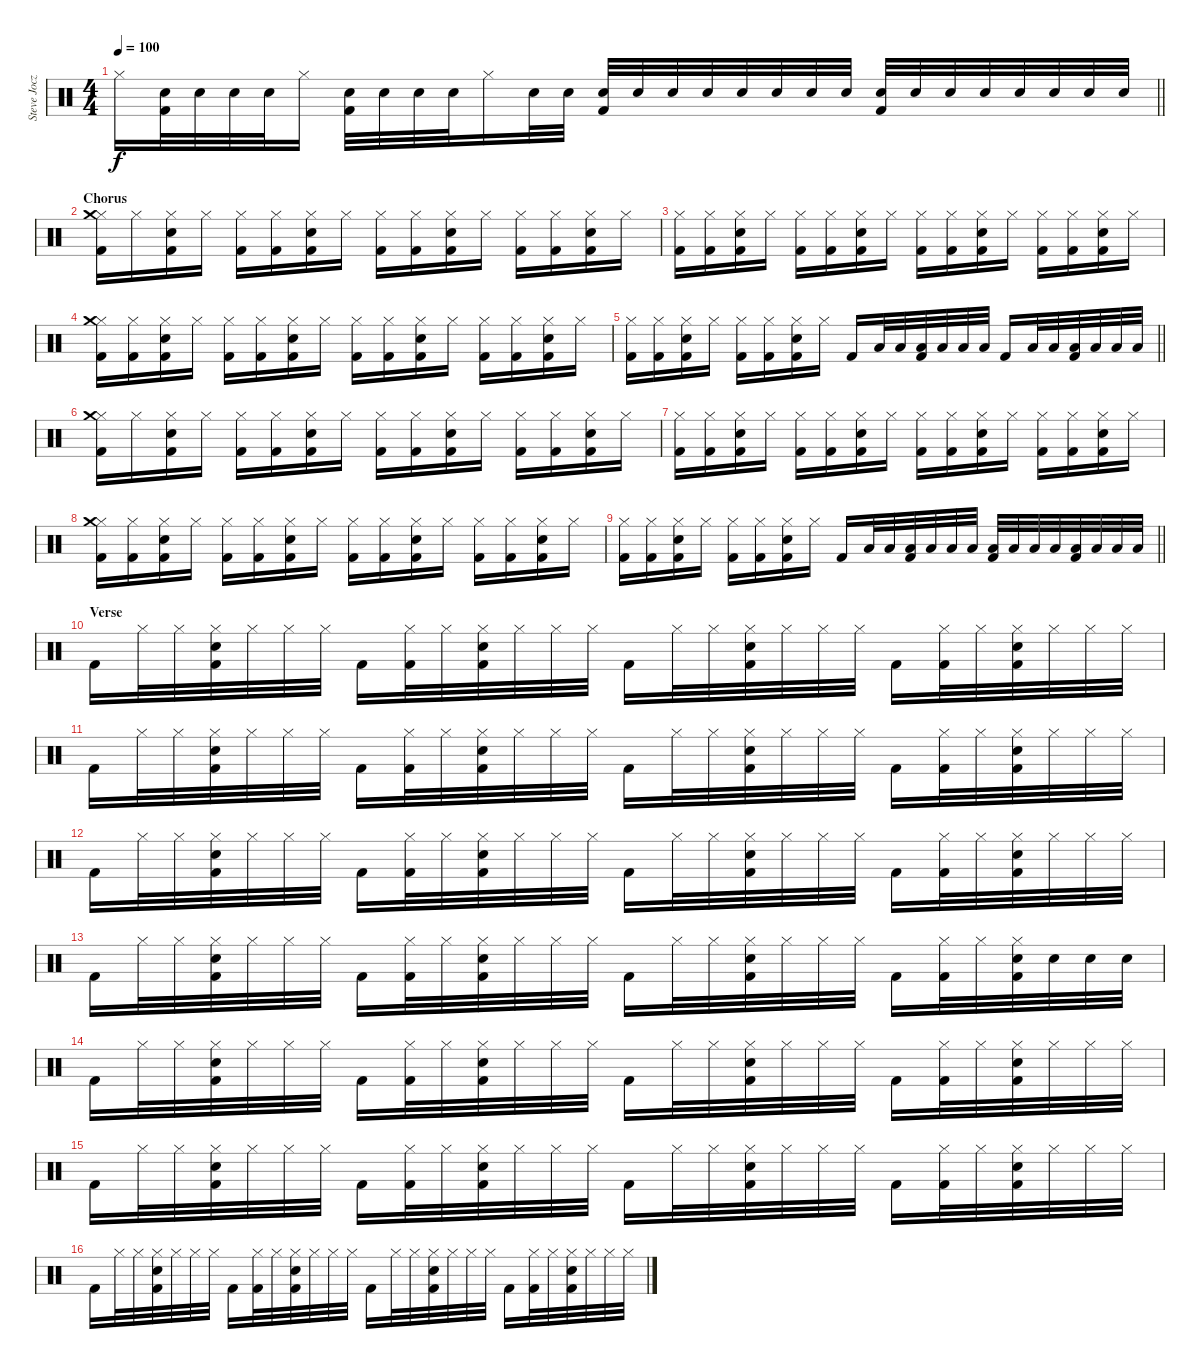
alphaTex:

\track ("Steve Jocz <Drums>" "Steve Jocz") {instrument percussion}
\staff {score}
\articulation defaults
\ts (4 4)
\tempo 100
\clef neutral
\barLineRight lightlight
\ks c "Hi-Hat (closed)".16{dy f}
("Snare (hit) 2" "Kick (hit) 2").32 "Snare (hit) 2".32 "Snare (hit) 2".32 "Snare (hit) 2".32 "Hi-Hat (closed)".16 ("Snare (hit) 2" "Kick (hit) 2").32 "Snare (hit) 2".32 "Snare (hit) 2".32 "Snare (hit) 2".32 "Hi-Hat (closed)".16 "Snare (hit) 2".32 "Snare (hit) 2".32 ("Snare (hit) 2" "Kick (hit) 2").32 "Snare (hit) 2".32 "Snare (hit) 2".32 "Snare (hit) 2".32 "Snare (hit) 2".32 "Snare (hit) 2".32 "Snare (hit) 2".32 "Snare (hit) 2".32 ("Snare (hit) 2" "Kick (hit) 2").32 "Snare (hit) 2".32 "Snare (hit) 2".32 "Snare (hit) 2".32 "Snare (hit) 2".32 "Snare (hit) 2".32 "Snare (hit) 2".32 "Snare (hit) 2".32 |
\section ("" "Chorus")
("Hi-Hat (closed)" "Crash medium (hit)" "Kick (hit) 2").16 "Hi-Hat (closed)".16 ("Hi-Hat (closed)" "Snare (hit) 2" "Kick (hit) 2").16 "Hi-Hat (closed)".16 ("Hi-Hat (closed)" "Kick (hit) 2").16 ("Hi-Hat (closed)" "Kick (hit) 2").16 ("Hi-Hat (closed)" "Snare (hit) 2" "Kick (hit) 2").16 "Hi-Hat (closed)".16 ("Hi-Hat (closed)" "Kick (hit) 2").16 ("Hi-Hat (closed)" "Kick (hit) 2").16 ("Hi-Hat (closed)" "Snare (hit) 2" "Kick (hit) 2").16 "Hi-Hat (closed)".16 ("Hi-Hat (closed)" "Kick (hit) 2").16 ("Hi-Hat (closed)" "Kick (hit) 2").16 ("Hi-Hat (closed)" "Snare (hit) 2" "Kick (hit) 2").16 "Hi-Hat (closed)".16 |
("Hi-Hat (closed)" "Kick (hit) 2").16 ("Hi-Hat (closed)" "Kick (hit) 2").16 ("Hi-Hat (closed)" "Snare (hit) 2" "Kick (hit) 2").16 "Hi-Hat (closed)".16 ("Hi-Hat (closed)" "Kick (hit) 2").16 ("Hi-Hat (closed)" "Kick (hit) 2").16 ("Hi-Hat (closed)" "Snare (hit) 2" "Kick (hit) 2").16 "Hi-Hat (closed)".16 ("Hi-Hat (closed)" "Kick (hit) 2").16 ("Hi-Hat (closed)" "Kick (hit) 2").16 ("Hi-Hat (closed)" "Snare (hit) 2" "Kick (hit) 2").16 "Hi-Hat (closed)".16 ("Hi-Hat (closed)" "Kick (hit) 2").16 ("Hi-Hat (closed)" "Kick (hit) 2").16 ("Hi-Hat (closed)" "Snare (hit) 2" "Kick (hit) 2").16 "Hi-Hat (closed)".16 |
("Hi-Hat (closed)" "Crash medium (hit)" "Kick (hit) 2").16 ("Hi-Hat (closed)" "Kick (hit) 2").16 ("Hi-Hat (closed)" "Snare (hit) 2" "Kick (hit) 2").16 "Hi-Hat (closed)".16 ("Hi-Hat (closed)" "Kick (hit) 2").16 ("Hi-Hat (closed)" "Kick (hit) 2").16 ("Hi-Hat (closed)" "Snare (hit) 2" "Kick (hit) 2").16 "Hi-Hat (closed)".16 ("Hi-Hat (closed)" "Kick (hit) 2").16 ("Hi-Hat (closed)" "Kick (hit) 2").16 ("Hi-Hat (closed)" "Snare (hit) 2" "Kick (hit) 2").16 "Hi-Hat (closed)".16 ("Hi-Hat (closed)" "Kick (hit) 2").16 ("Hi-Hat (closed)" "Kick (hit) 2").16 ("Hi-Hat (closed)" "Snare (hit) 2" "Kick (hit) 2").16 "Hi-Hat (closed)".16 |
\barLineRight lightlight
("Hi-Hat (closed)" "Kick (hit) 2").16 ("Hi-Hat (closed)" "Kick (hit) 2").16 ("Hi-Hat (closed)" "Snare (hit) 2" "Kick (hit) 2").16 "Hi-Hat (closed)".16 ("Hi-Hat (closed)" "Kick (hit) 2").16 ("Hi-Hat (closed)" "Kick (hit) 2").16 ("Hi-Hat (closed)" "Snare (hit) 2" "Kick (hit) 2").16 "Hi-Hat (closed)".16 "Kick (hit) 2".16 "Low Tom (hit)".32 "Low Tom (hit)".32 ("Low Tom (hit)" "Kick (hit) 2").32 "Low Tom (hit)".32 "Low Tom (hit)".32 "Low Tom (hit)".32 "Kick (hit) 2".16 "Low Tom (hit)".32 "Low Tom (hit)".32 ("Low Tom (hit)" "Kick (hit) 2").32 "Low Tom (hit)".32 "Low Tom (hit)".32 "Low Tom (hit)".32 |
("Hi-Hat (closed)" "Crash medium (hit)" "Kick (hit) 2").16 "Hi-Hat (closed)".16 ("Hi-Hat (closed)" "Snare (hit) 2" "Kick (hit) 2").16 "Hi-Hat (closed)".16 ("Hi-Hat (closed)" "Kick (hit) 2").16 ("Hi-Hat (closed)" "Kick (hit) 2").16 ("Hi-Hat (closed)" "Snare (hit) 2" "Kick (hit) 2").16 "Hi-Hat (closed)".16 ("Hi-Hat (closed)" "Kick (hit) 2").16 ("Hi-Hat (closed)" "Kick (hit) 2").16 ("Hi-Hat (closed)" "Snare (hit) 2" "Kick (hit) 2").16 "Hi-Hat (closed)".16 ("Hi-Hat (closed)" "Kick (hit) 2").16 ("Hi-Hat (closed)" "Kick (hit) 2").16 ("Hi-Hat (closed)" "Snare (hit) 2" "Kick (hit) 2").16 "Hi-Hat (closed)".16 |
("Hi-Hat (closed)" "Kick (hit) 2").16 ("Hi-Hat (closed)" "Kick (hit) 2").16 ("Hi-Hat (closed)" "Snare (hit) 2" "Kick (hit) 2").16 "Hi-Hat (closed)".16 ("Hi-Hat (closed)" "Kick (hit) 2").16 ("Hi-Hat (closed)" "Kick (hit) 2").16 ("Hi-Hat (closed)" "Snare (hit) 2" "Kick (hit) 2").16 "Hi-Hat (closed)".16 ("Hi-Hat (closed)" "Kick (hit) 2").16 ("Hi-Hat (closed)" "Kick (hit) 2").16 ("Hi-Hat (closed)" "Snare (hit) 2" "Kick (hit) 2").16 "Hi-Hat (closed)".16 ("Hi-Hat (closed)" "Kick (hit) 2").16 ("Hi-Hat (closed)" "Kick (hit) 2").16 ("Hi-Hat (closed)" "Snare (hit) 2" "Kick (hit) 2").16 "Hi-Hat (closed)".16 |
("Hi-Hat (closed)" "Crash medium (hit)" "Kick (hit) 2").16 ("Hi-Hat (closed)" "Kick (hit) 2").16 ("Hi-Hat (closed)" "Snare (hit) 2" "Kick (hit) 2").16 "Hi-Hat (closed)".16 ("Hi-Hat (closed)" "Kick (hit) 2").16 ("Hi-Hat (closed)" "Kick (hit) 2").16 ("Hi-Hat (closed)" "Snare (hit) 2" "Kick (hit) 2").16 "Hi-Hat (closed)".16 ("Hi-Hat (closed)" "Kick (hit) 2").16 ("Hi-Hat (closed)" "Kick (hit) 2").16 ("Hi-Hat (closed)" "Snare (hit) 2" "Kick (hit) 2").16 "Hi-Hat (closed)".16 ("Hi-Hat (closed)" "Kick (hit) 2").16 ("Hi-Hat (closed)" "Kick (hit) 2").16 ("Hi-Hat (closed)" "Snare (hit) 2" "Kick (hit) 2").16 "Hi-Hat (closed)".16 |
\barLineRight lightlight
("Hi-Hat (closed)" "Kick (hit) 2").16 ("Hi-Hat (closed)" "Kick (hit) 2").16 ("Hi-Hat (closed)" "Snare (hit) 2" "Kick (hit) 2").16 "Hi-Hat (closed)".16 ("Hi-Hat (closed)" "Kick (hit) 2").16 ("Hi-Hat (closed)" "Kick (hit) 2").16 ("Hi-Hat (closed)" "Snare (hit) 2" "Kick (hit) 2").16 "Hi-Hat (closed)".16 "Kick (hit) 2".16 "Low Tom (hit)".32 "Low Tom (hit)".32 ("Low Tom (hit)" "Kick (hit) 2").32 "Low Tom (hit)".32 "Low Tom (hit)".32 "Low Tom (hit)".32 ("Low Floor Tom (hit)" "Kick (hit) 2").32 "Low Floor Tom (hit)".32 "Low Floor Tom (hit)".32 "Low Floor Tom (hit)".32 ("Low Floor Tom (hit)" "Kick (hit) 2").32 "Low Floor Tom (hit)".32 "Low Floor Tom (hit)".32 "Low Floor Tom (hit)".32 |
\section ("" "Verse")
"Kick (hit) 2".16 "Hi-Hat (closed)".32 "Hi-Hat (closed)".32 ("Hi-Hat (closed)" "Snare (hit) 2" "Kick (hit) 2").32 "Hi-Hat (closed)".32 "Hi-Hat (closed)".32 "Hi-Hat (closed)".32 "Kick (hit) 2".16 ("Hi-Hat (closed)" "Kick (hit) 2").32 "Hi-Hat (closed)".32 ("Hi-Hat (closed)" "Snare (hit) 2" "Kick (hit) 2").32 "Hi-Hat (closed)".32 "Hi-Hat (closed)".32 "Hi-Hat (closed)".32 "Kick (hit) 2".16 "Hi-Hat (closed)".32 "Hi-Hat (closed)".32 ("Hi-Hat (closed)" "Snare (hit) 2" "Kick (hit) 2").32 "Hi-Hat (closed)".32 "Hi-Hat (closed)".32 "Hi-Hat (closed)".32 "Kick (hit) 2".16 ("Hi-Hat (closed)" "Kick (hit) 2").32 "Hi-Hat (closed)".32 ("Hi-Hat (closed)" "Snare (hit) 2" "Kick (hit) 2").32 "Hi-Hat (closed)".32 "Hi-Hat (closed)".32 "Hi-Hat (closed)".32 |
"Kick (hit) 2".16 "Hi-Hat (closed)".32 "Hi-Hat (closed)".32 ("Hi-Hat (closed)" "Snare (hit) 2" "Kick (hit) 2").32 "Hi-Hat (closed)".32 "Hi-Hat (closed)".32 "Hi-Hat (closed)".32 "Kick (hit) 2".16 ("Hi-Hat (closed)" "Kick (hit) 2").32 "Hi-Hat (closed)".32 ("Hi-Hat (closed)" "Snare (hit) 2" "Kick (hit) 2").32 "Hi-Hat (closed)".32 "Hi-Hat (closed)".32 "Hi-Hat (closed)".32 "Kick (hit) 2".16 "Hi-Hat (closed)".32 "Hi-Hat (closed)".32 ("Hi-Hat (closed)" "Snare (hit) 2" "Kick (hit) 2").32 "Hi-Hat (closed)".32 "Hi-Hat (closed)".32 "Hi-Hat (closed)".32 "Kick (hit) 2".16 ("Hi-Hat (closed)" "Kick (hit) 2").32 "Hi-Hat (closed)".32 ("Hi-Hat (closed)" "Snare (hit) 2" "Kick (hit) 2").32 "Hi-Hat (closed)".32 "Hi-Hat (closed)".32 "Hi-Hat (closed)".32 |
"Kick (hit) 2".16 "Hi-Hat (closed)".32 "Hi-Hat (closed)".32 ("Hi-Hat (closed)" "Snare (hit) 2" "Kick (hit) 2").32 "Hi-Hat (closed)".32 "Hi-Hat (closed)".32 "Hi-Hat (closed)".32 "Kick (hit) 2".16 ("Hi-Hat (closed)" "Kick (hit) 2").32 "Hi-Hat (closed)".32 ("Hi-Hat (closed)" "Snare (hit) 2" "Kick (hit) 2").32 "Hi-Hat (closed)".32 "Hi-Hat (closed)".32 "Hi-Hat (closed)".32 "Kick (hit) 2".16 "Hi-Hat (closed)".32 "Hi-Hat (closed)".32 ("Hi-Hat (closed)" "Snare (hit) 2" "Kick (hit) 2").32 "Hi-Hat (closed)".32 "Hi-Hat (closed)".32 "Hi-Hat (closed)".32 "Kick (hit) 2".16 ("Hi-Hat (closed)" "Kick (hit) 2").32 "Hi-Hat (closed)".32 ("Hi-Hat (closed)" "Snare (hit) 2" "Kick (hit) 2").32 "Hi-Hat (closed)".32 "Hi-Hat (closed)".32 "Hi-Hat (closed)".32 |
"Kick (hit) 2".16 "Hi-Hat (closed)".32 "Hi-Hat (closed)".32 ("Hi-Hat (closed)" "Snare (hit) 2" "Kick (hit) 2").32 "Hi-Hat (closed)".32 "Hi-Hat (closed)".32 "Hi-Hat (closed)".32 "Kick (hit) 2".16 ("Hi-Hat (closed)" "Kick (hit) 2").32 "Hi-Hat (closed)".32 ("Hi-Hat (closed)" "Snare (hit) 2" "Kick (hit) 2").32 "Hi-Hat (closed)".32 "Hi-Hat (closed)".32 "Hi-Hat (closed)".32 "Kick (hit) 2".16 "Hi-Hat (closed)".32 "Hi-Hat (closed)".32 ("Hi-Hat (closed)" "Snare (hit) 2" "Kick (hit) 2").32 "Hi-Hat (closed)".32 "Hi-Hat (closed)".32 "Hi-Hat (closed)".32 "Kick (hit) 2".16 ("Hi-Hat (closed)" "Kick (hit) 2").32 "Hi-Hat (closed)".32 ("Hi-Hat (closed)" "Snare (hit) 2" "Kick (hit) 2").32 "Snare (hit) 2".32 "Snare (hit) 2".32 "Snare (hit) 2".32 |
"Kick (hit) 2".16 "Hi-Hat (closed)".32 "Hi-Hat (closed)".32 ("Hi-Hat (closed)" "Snare (hit) 2" "Kick (hit) 2").32 "Hi-Hat (closed)".32 "Hi-Hat (closed)".32 "Hi-Hat (closed)".32 "Kick (hit) 2".16 ("Hi-Hat (closed)" "Kick (hit) 2").32 "Hi-Hat (closed)".32 ("Hi-Hat (closed)" "Snare (hit) 2" "Kick (hit) 2").32 "Hi-Hat (closed)".32 "Hi-Hat (closed)".32 "Hi-Hat (closed)".32 "Kick (hit) 2".16 "Hi-Hat (closed)".32 "Hi-Hat (closed)".32 ("Hi-Hat (closed)" "Snare (hit) 2" "Kick (hit) 2").32 "Hi-Hat (closed)".32 "Hi-Hat (closed)".32 "Hi-Hat (closed)".32 "Kick (hit) 2".16 ("Hi-Hat (closed)" "Kick (hit) 2").32 "Hi-Hat (closed)".32 ("Hi-Hat (closed)" "Snare (hit) 2" "Kick (hit) 2").32 "Hi-Hat (closed)".32 "Hi-Hat (closed)".32 "Hi-Hat (closed)".32 |
"Kick (hit) 2".16 "Hi-Hat (closed)".32 "Hi-Hat (closed)".32 ("Hi-Hat (closed)" "Snare (hit) 2" "Kick (hit) 2").32 "Hi-Hat (closed)".32 "Hi-Hat (closed)".32 "Hi-Hat (closed)".32 "Kick (hit) 2".16 ("Hi-Hat (closed)" "Kick (hit) 2").32 "Hi-Hat (closed)".32 ("Hi-Hat (closed)" "Snare (hit) 2" "Kick (hit) 2").32 "Hi-Hat (closed)".32 "Hi-Hat (closed)".32 "Hi-Hat (closed)".32 "Kick (hit) 2".16 "Hi-Hat (closed)".32 "Hi-Hat (closed)".32 ("Hi-Hat (closed)" "Snare (hit) 2" "Kick (hit) 2").32 "Hi-Hat (closed)".32 "Hi-Hat (closed)".32 "Hi-Hat (closed)".32 "Kick (hit) 2".16 ("Hi-Hat (closed)" "Kick (hit) 2").32 "Hi-Hat (closed)".32 ("Hi-Hat (closed)" "Snare (hit) 2" "Kick (hit) 2").32 "Hi-Hat (closed)".32 "Hi-Hat (closed)".32 "Hi-Hat (closed)".32 |
"Kick (hit) 2".16 "Hi-Hat (closed)".32 "Hi-Hat (closed)".32 ("Hi-Hat (closed)" "Snare (hit) 2" "Kick (hit) 2").32 "Hi-Hat (closed)".32 "Hi-Hat (closed)".32 "Hi-Hat (closed)".32 "Kick (hit) 2".16 ("Hi-Hat (closed)" "Kick (hit) 2").32 "Hi-Hat (closed)".32 ("Hi-Hat (closed)" "Snare (hit) 2" "Kick (hit) 2").32 "Hi-Hat (closed)".32 "Hi-Hat (closed)".32 "Hi-Hat (closed)".32 "Kick (hit) 2".16 "Hi-Hat (closed)".32 "Hi-Hat (closed)".32 ("Hi-Hat (closed)" "Snare (hit) 2" "Kick (hit) 2").32 "Hi-Hat (closed)".32 "Hi-Hat (closed)".32 "Hi-Hat (closed)".32 "Kick (hit) 2".16 ("Hi-Hat (closed)" "Kick (hit) 2").32 "Hi-Hat (closed)".32 ("Hi-Hat (closed)" "Snare (hit) 2" "Kick (hit) 2").32 "Hi-Hat (closed)".32 "Hi-Hat (closed)".32 "Hi-Hat (closed)".32
